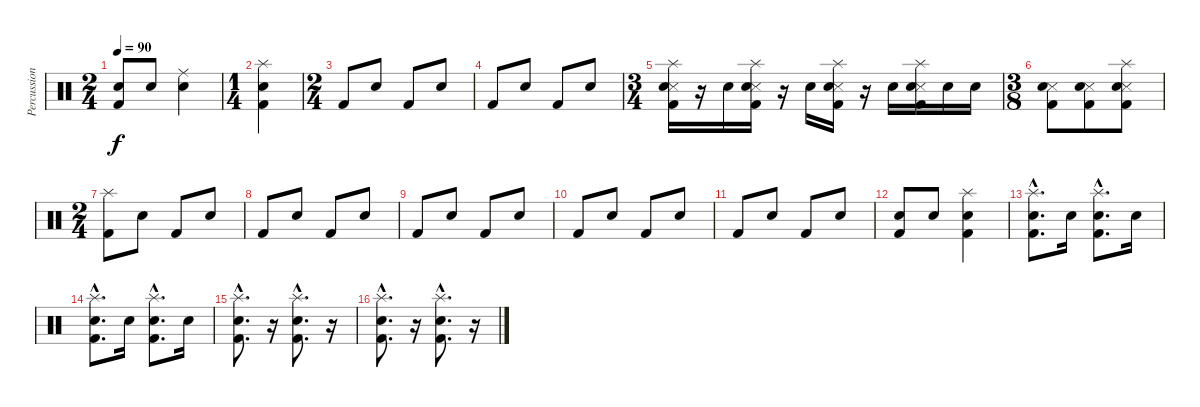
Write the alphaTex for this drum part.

\track ("Percussion" "Percussion") {instrument percussion}
\staff {score}
\articulation defaults
\ts (2 4)
\tempo 90
\clef neutral
\ks c
("Snare (hit) 2" "Kick (hit) 2").8{dy f} "Snare (hit) 2".8 ("Ride (middle)" "Snare (hit) 2").4 |
\ts (1 4)
("Splash (hit)" "Snare (hit) 2" "Kick (hit) 2").4 |
\ts (2 4)
"Kick (hit) 2".8 "Snare (hit) 2".8 "Kick (hit) 2".8 "Snare (hit) 2".8 |
"Kick (hit) 2".8 "Snare (hit) 2".8 "Kick (hit) 2".8 "Snare (hit) 2".8 |
\ts (3 4)
("Splash (hit)" "Snare (side stick) 3" "Snare (hit) 2" "Kick (hit) 2").16 r.16 "Snare (hit) 2".16 ("Splash (hit)" "Snare (side stick) 3" "Snare (hit) 2" "Kick (hit) 2").16 r.16 "Snare (hit) 2".16 ("Splash (hit)" "Snare (side stick) 3" "Snare (hit) 2" "Kick (hit) 2").16 r.16 "Snare (hit) 2".16 ("Splash (hit)" "Snare (side stick) 3" "Snare (hit) 2" "Kick (hit) 2").16 "Snare (hit) 2".16 "Snare (hit) 2".16 |
\ts (3 8)
("Snare (side stick) 3" "Snare (hit) 2" "Kick (hit) 2").8 ("Snare (side stick) 3" "Snare (hit) 2" "Kick (hit) 2").8 ("Splash (hit)" "Snare (side stick) 3" "Snare (hit) 2" "Kick (hit) 2").8 |
\ts (2 4)
("Splash (hit)" "Kick (hit) 2").8 "Snare (hit) 2".8 "Kick (hit) 2".8 "Snare (hit) 2".8 |
"Kick (hit) 2".8 "Snare (hit) 2".8 "Kick (hit) 2".8 "Snare (hit) 2".8 |
"Kick (hit) 2".8 "Snare (hit) 2".8 "Kick (hit) 2".8 "Snare (hit) 2".8 |
"Kick (hit) 2".8 "Snare (hit) 2".8 "Kick (hit) 2".8 "Snare (hit) 2".8 |
"Kick (hit) 2".8 "Snare (hit) 2".8 "Kick (hit) 2".8 "Snare (hit) 2".8 |
("Snare (hit) 2" "Kick (hit) 2").8 "Snare (hit) 2".8 ("Splash (hit)" "Snare (hit) 2" "Kick (hit) 2").4 |
("Splash (hit)"{hac} "Snare (hit) 2"{hac} "Kick (hit) 2"{hac}).8{d} "Snare (hit) 2".16 ("Splash (hit)"{hac} "Snare (hit) 2"{hac} "Kick (hit) 2"{hac}).8{d} "Snare (hit) 2".16 |
("Splash (hit)"{hac} "Snare (hit) 2"{hac} "Kick (hit) 2"{hac}).8{d} "Snare (hit) 2".16 ("Splash (hit)"{hac} "Snare (hit) 2"{hac} "Kick (hit) 2"{hac}).8{d} "Snare (hit) 2".16 |
("Splash (hit)"{hac} "Snare (hit) 2"{hac} "Kick (hit) 2"{hac}).8{d} r.16 ("Splash (hit)"{hac} "Snare (hit) 2"{hac} "Kick (hit) 2"{hac}).8{d} r.16 |
("Splash (hit)"{hac} "Snare (hit) 2"{hac} "Kick (hit) 2"{hac}).8{d} r.16 ("Splash (hit)"{hac} "Snare (hit) 2"{hac} "Kick (hit) 2"{hac}).8{d} r.16
